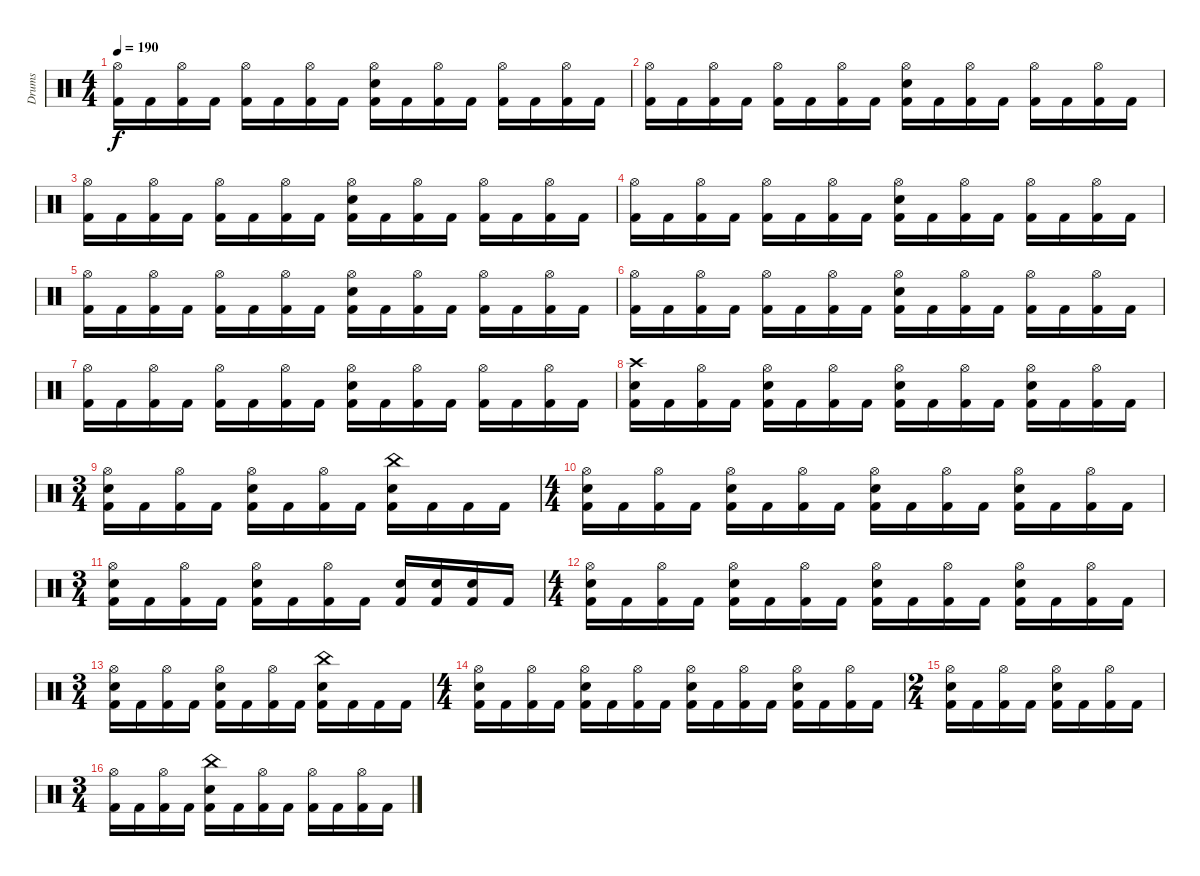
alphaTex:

\track ("Drums" "Drums") {instrument percussion}
\staff {score}
\articulation defaults
\ts (4 4)
\tempo 190
\clef neutral
\ks c
("Hi-Hat (open)" "Kick (hit) 2").16{dy f} "Kick (hit) 2".16 ("Hi-Hat (open)" "Kick (hit) 2").16 "Kick (hit) 2".16 ("Hi-Hat (open)" "Kick (hit) 2").16 "Kick (hit) 2".16 ("Hi-Hat (open)" "Kick (hit) 2").16 "Kick (hit) 2".16 ("Hi-Hat (open)" "Electric Snare (hit)" "Kick (hit) 2").16 "Kick (hit) 2".16 ("Hi-Hat (open)" "Kick (hit) 2").16 "Kick (hit) 2".16 ("Hi-Hat (open)" "Kick (hit) 2").16 "Kick (hit) 2".16 ("Hi-Hat (open)" "Kick (hit) 2").16 "Kick (hit) 2".16 |
("Hi-Hat (open)" "Kick (hit) 2").16 "Kick (hit) 2".16 ("Hi-Hat (open)" "Kick (hit) 2").16 "Kick (hit) 2".16 ("Hi-Hat (open)" "Kick (hit) 2").16 "Kick (hit) 2".16 ("Hi-Hat (open)" "Kick (hit) 2").16 "Kick (hit) 2".16 ("Hi-Hat (open)" "Electric Snare (hit)" "Kick (hit) 2").16 "Kick (hit) 2".16 ("Hi-Hat (open)" "Kick (hit) 2").16 "Kick (hit) 2".16 ("Hi-Hat (open)" "Kick (hit) 2").16 "Kick (hit) 2".16 ("Hi-Hat (open)" "Kick (hit) 2").16 "Kick (hit) 2".16 |
("Hi-Hat (open)" "Kick (hit) 2").16 "Kick (hit) 2".16 ("Hi-Hat (open)" "Kick (hit) 2").16 "Kick (hit) 2".16 ("Hi-Hat (open)" "Kick (hit) 2").16 "Kick (hit) 2".16 ("Hi-Hat (open)" "Kick (hit) 2").16 "Kick (hit) 2".16 ("Hi-Hat (open)" "Electric Snare (hit)" "Kick (hit) 2").16 "Kick (hit) 2".16 ("Hi-Hat (open)" "Kick (hit) 2").16 "Kick (hit) 2".16 ("Hi-Hat (open)" "Kick (hit) 2").16 "Kick (hit) 2".16 ("Hi-Hat (open)" "Kick (hit) 2").16 "Kick (hit) 2".16 |
("Hi-Hat (open)" "Kick (hit) 2").16 "Kick (hit) 2".16 ("Hi-Hat (open)" "Kick (hit) 2").16 "Kick (hit) 2".16 ("Hi-Hat (open)" "Kick (hit) 2").16 "Kick (hit) 2".16 ("Hi-Hat (open)" "Kick (hit) 2").16 "Kick (hit) 2".16 ("Hi-Hat (open)" "Electric Snare (hit)" "Kick (hit) 2").16 "Kick (hit) 2".16 ("Hi-Hat (open)" "Kick (hit) 2").16 "Kick (hit) 2".16 ("Hi-Hat (open)" "Kick (hit) 2").16 "Kick (hit) 2".16 ("Hi-Hat (open)" "Kick (hit) 2").16 "Kick (hit) 2".16 |
("Hi-Hat (open)" "Kick (hit) 2").16 "Kick (hit) 2".16 ("Hi-Hat (open)" "Kick (hit) 2").16 "Kick (hit) 2".16 ("Hi-Hat (open)" "Kick (hit) 2").16 "Kick (hit) 2".16 ("Hi-Hat (open)" "Kick (hit) 2").16 "Kick (hit) 2".16 ("Hi-Hat (open)" "Electric Snare (hit)" "Kick (hit) 2").16 "Kick (hit) 2".16 ("Hi-Hat (open)" "Kick (hit) 2").16 "Kick (hit) 2".16 ("Hi-Hat (open)" "Kick (hit) 2").16 "Kick (hit) 2".16 ("Hi-Hat (open)" "Kick (hit) 2").16 "Kick (hit) 2".16 |
("Hi-Hat (open)" "Kick (hit) 2").16 "Kick (hit) 2".16 ("Hi-Hat (open)" "Kick (hit) 2").16 "Kick (hit) 2".16 ("Hi-Hat (open)" "Kick (hit) 2").16 "Kick (hit) 2".16 ("Hi-Hat (open)" "Kick (hit) 2").16 "Kick (hit) 2".16 ("Hi-Hat (open)" "Electric Snare (hit)" "Kick (hit) 2").16 "Kick (hit) 2".16 ("Hi-Hat (open)" "Kick (hit) 2").16 "Kick (hit) 2".16 ("Hi-Hat (open)" "Kick (hit) 2").16 "Kick (hit) 2".16 ("Hi-Hat (open)" "Kick (hit) 2").16 "Kick (hit) 2".16 |
("Hi-Hat (open)" "Kick (hit) 2").16 "Kick (hit) 2".16 ("Hi-Hat (open)" "Kick (hit) 2").16 "Kick (hit) 2".16 ("Hi-Hat (open)" "Kick (hit) 2").16 "Kick (hit) 2".16 ("Hi-Hat (open)" "Kick (hit) 2").16 "Kick (hit) 2".16 ("Hi-Hat (open)" "Electric Snare (hit)" "Kick (hit) 2").16 "Kick (hit) 2".16 ("Hi-Hat (open)" "Kick (hit) 2").16 "Kick (hit) 2".16 ("Hi-Hat (open)" "Kick (hit) 2").16 "Kick (hit) 2".16 ("Hi-Hat (open)" "Kick (hit) 2").16 "Kick (hit) 2".16 |
("Crash high (hit)" "Electric Snare (hit)" "Kick (hit) 2").16 "Kick (hit) 2".16 ("Hi-Hat (open)" "Kick (hit) 2").16 "Kick (hit) 2".16 ("Hi-Hat (open)" "Electric Snare (hit)" "Kick (hit) 2").16 "Kick (hit) 2".16 ("Hi-Hat (open)" "Kick (hit) 2").16 "Kick (hit) 2".16 ("Hi-Hat (open)" "Electric Snare (hit)" "Kick (hit) 2").16 "Kick (hit) 2".16 ("Hi-Hat (open)" "Kick (hit) 2").16 "Kick (hit) 2".16 ("Hi-Hat (open)" "Electric Snare (hit)" "Kick (hit) 2").16 "Kick (hit) 2".16 ("Hi-Hat (open)" "Kick (hit) 2").16 "Kick (hit) 2".16 |
\ts (3 4)
("Hi-Hat (open)" "Electric Snare (hit)" "Kick (hit) 2").16 "Kick (hit) 2".16 ("Hi-Hat (open)" "Kick (hit) 2").16 "Kick (hit) 2".16 ("Hi-Hat (open)" "Electric Snare (hit)" "Kick (hit) 2").16 "Kick (hit) 2".16 ("Hi-Hat (open)" "Kick (hit) 2").16 "Kick (hit) 2".16 ("China (hit)" "Electric Snare (hit)" "Kick (hit) 2").16 "Kick (hit) 2".16 "Kick (hit) 2".16 "Kick (hit) 2".16 |
\ts (4 4)
("Hi-Hat (open)" "Electric Snare (hit)" "Kick (hit) 2").16 "Kick (hit) 2".16 ("Hi-Hat (open)" "Kick (hit) 2").16 "Kick (hit) 2".16 ("Hi-Hat (open)" "Electric Snare (hit)" "Kick (hit) 2").16 "Kick (hit) 2".16 ("Hi-Hat (open)" "Kick (hit) 2").16 "Kick (hit) 2".16 ("Hi-Hat (open)" "Electric Snare (hit)" "Kick (hit) 2").16 "Kick (hit) 2".16 ("Hi-Hat (open)" "Kick (hit) 2").16 "Kick (hit) 2".16 ("Hi-Hat (open)" "Electric Snare (hit)" "Kick (hit) 2").16 "Kick (hit) 2".16 ("Hi-Hat (open)" "Kick (hit) 2").16 "Kick (hit) 2".16 |
\ts (3 4)
("Hi-Hat (open)" "Electric Snare (hit)" "Kick (hit) 2").16 "Kick (hit) 2".16 ("Hi-Hat (open)" "Kick (hit) 2").16 "Kick (hit) 2".16 ("Hi-Hat (open)" "Electric Snare (hit)" "Kick (hit) 2").16 "Kick (hit) 2".16 ("Hi-Hat (open)" "Kick (hit) 2").16 "Kick (hit) 2".16 ("Electric Snare (hit)" "Kick (hit) 2").16 ("Electric Snare (hit)" "Kick (hit) 2").16 ("Electric Snare (hit)" "Kick (hit) 2").16 "Kick (hit) 2".16 |
\ts (4 4)
("Hi-Hat (open)" "Electric Snare (hit)" "Kick (hit) 2").16 "Kick (hit) 2".16 ("Hi-Hat (open)" "Kick (hit) 2").16 "Kick (hit) 2".16 ("Hi-Hat (open)" "Electric Snare (hit)" "Kick (hit) 2").16 "Kick (hit) 2".16 ("Hi-Hat (open)" "Kick (hit) 2").16 "Kick (hit) 2".16 ("Hi-Hat (open)" "Electric Snare (hit)" "Kick (hit) 2").16 "Kick (hit) 2".16 ("Hi-Hat (open)" "Kick (hit) 2").16 "Kick (hit) 2".16 ("Hi-Hat (open)" "Electric Snare (hit)" "Kick (hit) 2").16 "Kick (hit) 2".16 ("Hi-Hat (open)" "Kick (hit) 2").16 "Kick (hit) 2".16 |
\ts (3 4)
("Hi-Hat (open)" "Electric Snare (hit)" "Kick (hit) 2").16 "Kick (hit) 2".16 ("Hi-Hat (open)" "Kick (hit) 2").16 "Kick (hit) 2".16 ("Hi-Hat (open)" "Electric Snare (hit)" "Kick (hit) 2").16 "Kick (hit) 2".16 ("Hi-Hat (open)" "Kick (hit) 2").16 "Kick (hit) 2".16 ("China (hit)" "Electric Snare (hit)" "Kick (hit) 2").16 "Kick (hit) 2".16 "Kick (hit) 2".16 "Kick (hit) 2".16 |
\ts (4 4)
("Hi-Hat (open)" "Electric Snare (hit)" "Kick (hit) 2").16 "Kick (hit) 2".16 ("Hi-Hat (open)" "Kick (hit) 2").16 "Kick (hit) 2".16 ("Hi-Hat (open)" "Electric Snare (hit)" "Kick (hit) 2").16 "Kick (hit) 2".16 ("Hi-Hat (open)" "Kick (hit) 2").16 "Kick (hit) 2".16 ("Hi-Hat (open)" "Electric Snare (hit)" "Kick (hit) 2").16 "Kick (hit) 2".16 ("Hi-Hat (open)" "Kick (hit) 2").16 "Kick (hit) 2".16 ("Hi-Hat (open)" "Electric Snare (hit)" "Kick (hit) 2").16 "Kick (hit) 2".16 ("Hi-Hat (open)" "Kick (hit) 2").16 "Kick (hit) 2".16 |
\ts (2 4)
("Hi-Hat (open)" "Electric Snare (hit)" "Kick (hit) 2").16 "Kick (hit) 2".16 ("Hi-Hat (open)" "Kick (hit) 2").16 "Kick (hit) 2".16 ("Hi-Hat (open)" "Electric Snare (hit)" "Kick (hit) 2").16 "Kick (hit) 2".16 ("Hi-Hat (open)" "Kick (hit) 2").16 "Kick (hit) 2".16 |
\ts (3 4)
("Hi-Hat (open)" "Kick (hit) 2").16 "Kick (hit) 2".16 ("Hi-Hat (open)" "Kick (hit) 2").16 "Kick (hit) 2".16 ("China (hit)" "Electric Snare (hit)" "Kick (hit) 2").16 "Kick (hit) 2".16 ("Hi-Hat (open)" "Kick (hit) 2").16 "Kick (hit) 2".16 ("Hi-Hat (open)" "Kick (hit) 2").16 "Kick (hit) 2".16 ("Hi-Hat (open)" "Kick (hit) 2").16 "Kick (hit) 2".16
